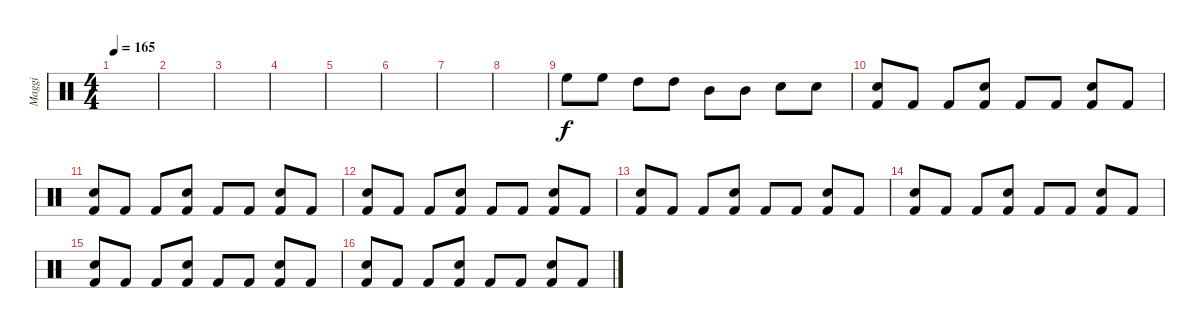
\track ("Maggi" "Maggi") {instrument percussion}
\staff {score}
\articulation defaults
\ts (4 4)
\tempo 165
\clef neutral
\ks c
|
|
|
|
|
|
|
|
"High Floor Tom (hit)".8 "High Floor Tom (hit)".8 "High Tom (hit)".8 "High Tom (hit)".8 "Mid Tom (hit)".8 "Mid Tom (hit)".8 "Snare (hit) 2".8 "Snare (hit) 2".8 |
("Snare (hit) 2" "Kick (hit) 2").8 "Kick (hit) 2".8 "Kick (hit) 2".8 ("Snare (hit) 2" "Kick (hit) 2").8 "Kick (hit) 2".8 "Kick (hit) 2".8 ("Snare (hit) 2" "Kick (hit) 2").8 "Kick (hit) 2".8 |
("Snare (hit) 2" "Kick (hit) 2").8 "Kick (hit) 2".8 "Kick (hit) 2".8 ("Snare (hit) 2" "Kick (hit) 2").8 "Kick (hit) 2".8 "Kick (hit) 2".8 ("Snare (hit) 2" "Kick (hit) 2").8 "Kick (hit) 2".8 |
("Snare (hit) 2" "Kick (hit) 2").8 "Kick (hit) 2".8 "Kick (hit) 2".8 ("Snare (hit) 2" "Kick (hit) 2").8 "Kick (hit) 2".8 "Kick (hit) 2".8 ("Snare (hit) 2" "Kick (hit) 2").8 "Kick (hit) 2".8 |
("Snare (hit) 2" "Kick (hit) 2").8 "Kick (hit) 2".8 "Kick (hit) 2".8 ("Snare (hit) 2" "Kick (hit) 2").8 "Kick (hit) 2".8 "Kick (hit) 2".8 ("Snare (hit) 2" "Kick (hit) 2").8 "Kick (hit) 2".8 |
("Snare (hit) 2" "Kick (hit) 2").8 "Kick (hit) 2".8 "Kick (hit) 2".8 ("Snare (hit) 2" "Kick (hit) 2").8 "Kick (hit) 2".8 "Kick (hit) 2".8 ("Snare (hit) 2" "Kick (hit) 2").8 "Kick (hit) 2".8 |
("Snare (hit) 2" "Kick (hit) 2").8 "Kick (hit) 2".8 "Kick (hit) 2".8 ("Snare (hit) 2" "Kick (hit) 2").8 "Kick (hit) 2".8 "Kick (hit) 2".8 ("Snare (hit) 2" "Kick (hit) 2").8 "Kick (hit) 2".8 |
("Snare (hit) 2" "Kick (hit) 2").8 "Kick (hit) 2".8 "Kick (hit) 2".8 ("Snare (hit) 2" "Kick (hit) 2").8 "Kick (hit) 2".8 "Kick (hit) 2".8 ("Snare (hit) 2" "Kick (hit) 2").8 "Kick (hit) 2".8
